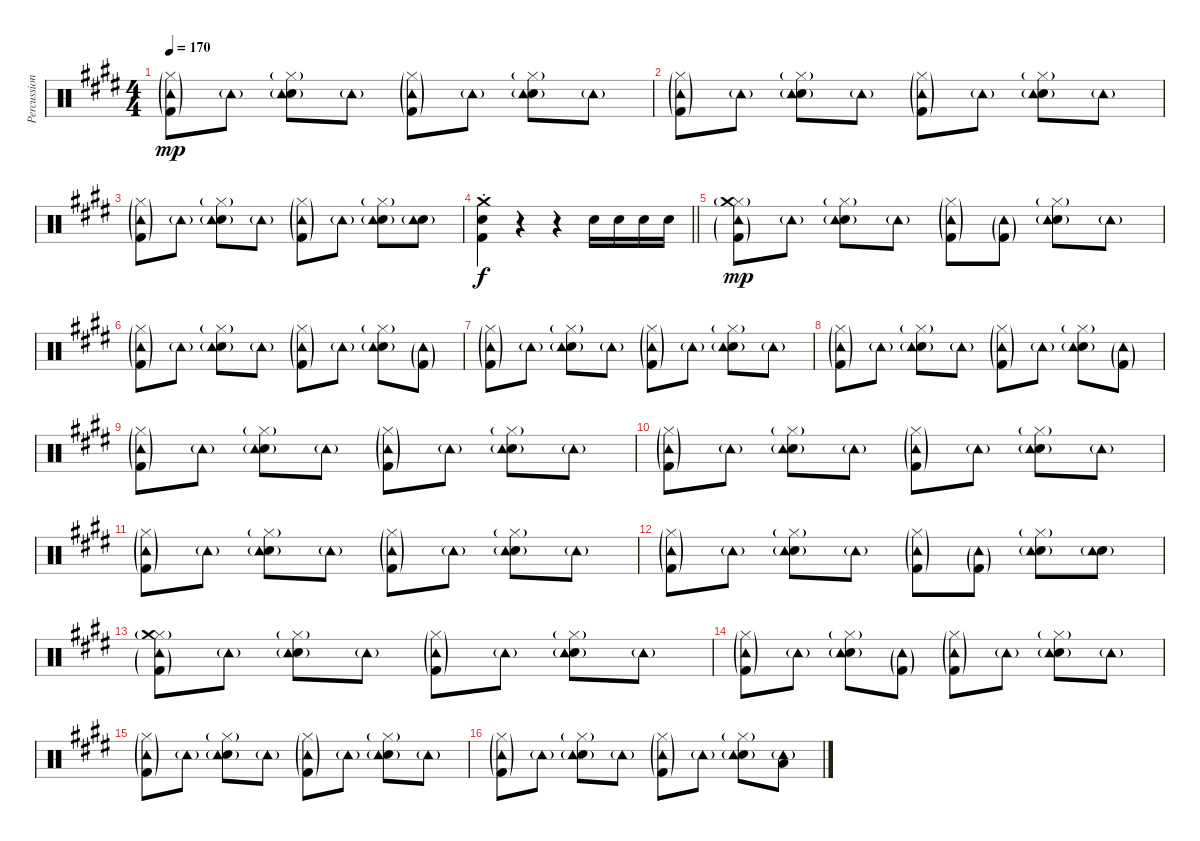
\track ("Percussion" "Percussion") {instrument percussion}
\staff {score}
\articulation defaults
\ts (4 4)
\tempo 170
\clef neutral
\ks e
("Hi-Hat (closed)"{g} "Kick (hit) 2"{g} "Tambourine (hit)"{g}).8{dy mp} "Tambourine (hit)"{g}.8 ("Hi-Hat (closed)"{g} "Snare (hit) 2" "Tambourine (hit)"{g}).8 "Tambourine (hit)"{g}.8 ("Hi-Hat (closed)"{g} "Kick (hit) 2"{g} "Tambourine (hit)"{g}).8 "Tambourine (hit)"{g}.8 ("Hi-Hat (closed)"{g} "Snare (hit) 2" "Tambourine (hit)"{g}).8 "Tambourine (hit)"{g}.8 |
("Hi-Hat (closed)"{g} "Kick (hit) 2"{g} "Tambourine (hit)"{g}).8 "Tambourine (hit)"{g}.8 ("Hi-Hat (closed)"{g} "Snare (hit) 2" "Tambourine (hit)"{g}).8 "Tambourine (hit)"{g}.8 ("Hi-Hat (closed)"{g} "Kick (hit) 2"{g} "Tambourine (hit)"{g}).8 "Tambourine (hit)"{g}.8 ("Hi-Hat (closed)"{g} "Snare (hit) 2" "Tambourine (hit)"{g}).8 "Tambourine (hit)"{g}.8 |
("Hi-Hat (closed)"{g} "Kick (hit) 2"{g} "Tambourine (hit)"{g}).8 "Tambourine (hit)"{g}.8 ("Hi-Hat (closed)"{g} "Snare (hit) 2" "Tambourine (hit)"{g}).8 "Tambourine (hit)"{g}.8 ("Hi-Hat (closed)"{g} "Kick (hit) 2"{g} "Tambourine (hit)"{g}).8 "Tambourine (hit)"{g}.8 ("Hi-Hat (closed)"{g} "Snare (hit) 2" "Tambourine (hit)"{g}).8 ("Snare (hit) 2" "Tambourine (hit)"{g}).8 |
\barLineRight lightlight
("Crash medium (hit)"{st} "Snare (hit) 2" "Kick (hit) 2").4{dy f} r.4 r.4 "Snare (hit) 2".16 "Snare (hit) 2".16 "Snare (hit) 2".16 "Snare (hit) 2".16 |
("Hi-Hat (closed)"{g} "Crash medium (hit)" "Kick (hit) 2"{g} "Tambourine (hit)"{g}).8{dy mp} "Tambourine (hit)"{g}.8 ("Hi-Hat (closed)"{g} "Snare (hit) 2" "Tambourine (hit)"{g}).8 "Tambourine (hit)"{g}.8 ("Hi-Hat (closed)"{g} "Kick (hit) 2"{g} "Tambourine (hit)"{g}).8 ("Kick (hit) 2"{g} "Tambourine (hit)"{g}).8 ("Hi-Hat (closed)"{g} "Snare (hit) 2" "Tambourine (hit)"{g}).8 "Tambourine (hit)"{g}.8 |
("Hi-Hat (closed)"{g} "Kick (hit) 2"{g} "Tambourine (hit)"{g}).8 "Tambourine (hit)"{g}.8 ("Hi-Hat (closed)"{g} "Snare (hit) 2" "Tambourine (hit)"{g}).8 "Tambourine (hit)"{g}.8 ("Hi-Hat (closed)"{g} "Kick (hit) 2"{g} "Tambourine (hit)"{g}).8 "Tambourine (hit)"{g}.8 ("Hi-Hat (closed)"{g} "Snare (hit) 2" "Tambourine (hit)"{g}).8 ("Kick (hit) 2"{g} "Tambourine (hit)"{g}).8 |
("Hi-Hat (closed)"{g} "Kick (hit) 2"{g} "Tambourine (hit)"{g}).8 "Tambourine (hit)"{g}.8 ("Hi-Hat (closed)"{g} "Snare (hit) 2" "Tambourine (hit)"{g}).8 "Tambourine (hit)"{g}.8 ("Hi-Hat (closed)"{g} "Kick (hit) 2"{g} "Tambourine (hit)"{g}).8 "Tambourine (hit)"{g}.8 ("Hi-Hat (closed)"{g} "Snare (hit) 2" "Tambourine (hit)"{g}).8 "Tambourine (hit)"{g}.8 |
("Hi-Hat (closed)"{g} "Kick (hit) 2"{g} "Tambourine (hit)"{g}).8 "Tambourine (hit)"{g}.8 ("Hi-Hat (closed)"{g} "Snare (hit) 2" "Tambourine (hit)"{g}).8 "Tambourine (hit)"{g}.8 ("Hi-Hat (closed)"{g} "Kick (hit) 2"{g} "Tambourine (hit)"{g}).8 "Tambourine (hit)"{g}.8 ("Hi-Hat (closed)"{g} "Snare (hit) 2" "Tambourine (hit)"{g}).8 ("Kick (hit) 2"{g} "Tambourine (hit)"{g}).8 |
("Hi-Hat (closed)"{g} "Kick (hit) 2"{g} "Tambourine (hit)"{g}).8 "Tambourine (hit)"{g}.8 ("Hi-Hat (closed)"{g} "Snare (hit) 2" "Tambourine (hit)"{g}).8 "Tambourine (hit)"{g}.8 ("Hi-Hat (closed)"{g} "Kick (hit) 2"{g} "Tambourine (hit)"{g}).8 "Tambourine (hit)"{g}.8 ("Hi-Hat (closed)"{g} "Snare (hit) 2" "Tambourine (hit)"{g}).8 "Tambourine (hit)"{g}.8 |
("Hi-Hat (closed)"{g} "Kick (hit) 2"{g} "Tambourine (hit)"{g}).8 "Tambourine (hit)"{g}.8 ("Hi-Hat (closed)"{g} "Snare (hit) 2" "Tambourine (hit)"{g}).8 "Tambourine (hit)"{g}.8 ("Hi-Hat (closed)"{g} "Kick (hit) 2"{g} "Tambourine (hit)"{g}).8 "Tambourine (hit)"{g}.8 ("Hi-Hat (closed)"{g} "Snare (hit) 2" "Tambourine (hit)"{g}).8 "Tambourine (hit)"{g}.8 |
("Hi-Hat (closed)"{g} "Kick (hit) 2"{g} "Tambourine (hit)"{g}).8 "Tambourine (hit)"{g}.8 ("Hi-Hat (closed)"{g} "Snare (hit) 2" "Tambourine (hit)"{g}).8 "Tambourine (hit)"{g}.8 ("Hi-Hat (closed)"{g} "Kick (hit) 2"{g} "Tambourine (hit)"{g}).8 "Tambourine (hit)"{g}.8 ("Hi-Hat (closed)"{g} "Snare (hit) 2" "Tambourine (hit)"{g}).8 "Tambourine (hit)"{g}.8 |
("Hi-Hat (closed)"{g} "Kick (hit) 2"{g} "Tambourine (hit)"{g}).8 "Tambourine (hit)"{g}.8 ("Hi-Hat (closed)"{g} "Snare (hit) 2" "Tambourine (hit)"{g}).8 "Tambourine (hit)"{g}.8 ("Hi-Hat (closed)"{g} "Kick (hit) 2"{g} "Tambourine (hit)"{g}).8 ("Kick (hit) 2"{g} "Tambourine (hit)"{g}).8 ("Hi-Hat (closed)"{g} "Snare (hit) 2" "Tambourine (hit)"{g}).8 ("Snare (hit) 2" "Tambourine (hit)"{g}).8 |
("Hi-Hat (closed)"{g} "Crash medium (hit)" "Kick (hit) 2"{g} "Tambourine (hit)"{g}).8 "Tambourine (hit)"{g}.8 ("Hi-Hat (closed)"{g} "Snare (hit) 2" "Tambourine (hit)"{g}).8 "Tambourine (hit)"{g}.8 ("Hi-Hat (closed)"{g} "Kick (hit) 2"{g} "Tambourine (hit)"{g}).8 "Tambourine (hit)"{g}.8 ("Hi-Hat (closed)"{g} "Snare (hit) 2" "Tambourine (hit)"{g}).8 "Tambourine (hit)"{g}.8 |
("Hi-Hat (closed)"{g} "Kick (hit) 2"{g} "Tambourine (hit)"{g}).8 "Tambourine (hit)"{g}.8 ("Hi-Hat (closed)"{g} "Snare (hit) 2" "Tambourine (hit)"{g}).8 ("Kick (hit) 2"{g} "Tambourine (hit)"{g}).8 ("Hi-Hat (closed)"{g} "Kick (hit) 2"{g} "Tambourine (hit)"{g}).8 "Tambourine (hit)"{g}.8 ("Hi-Hat (closed)"{g} "Snare (hit) 2" "Tambourine (hit)"{g}).8 "Tambourine (hit)"{g}.8 |
("Hi-Hat (closed)"{g} "Kick (hit) 2"{g} "Tambourine (hit)"{g}).8 "Tambourine (hit)"{g}.8 ("Hi-Hat (closed)"{g} "Snare (hit) 2" "Tambourine (hit)"{g}).8 "Tambourine (hit)"{g}.8 ("Hi-Hat (closed)"{g} "Kick (hit) 2"{g} "Tambourine (hit)"{g}).8 "Tambourine (hit)"{g}.8 ("Hi-Hat (closed)"{g} "Snare (hit) 2" "Tambourine (hit)"{g}).8 "Tambourine (hit)"{g}.8 |
("Hi-Hat (closed)"{g} "Tambourine (hit)"{g} "Kick (hit) 2"{g}).8 "Tambourine (hit)"{g}.8 ("Hi-Hat (closed)"{g} "Snare (hit) 2" "Tambourine (hit)"{g}).8 "Tambourine (hit)"{g}.8 ("Hi-Hat (closed)"{g} "Tambourine (hit)"{g} "Kick (hit) 2"{g}).8 "Tambourine (hit)"{g}.8 ("Hi-Hat (closed)"{g} "Snare (hit) 2" "Tambourine (hit)"{g}).8 ("Low Tom (hit)" "Tambourine (hit)"{g}).8
